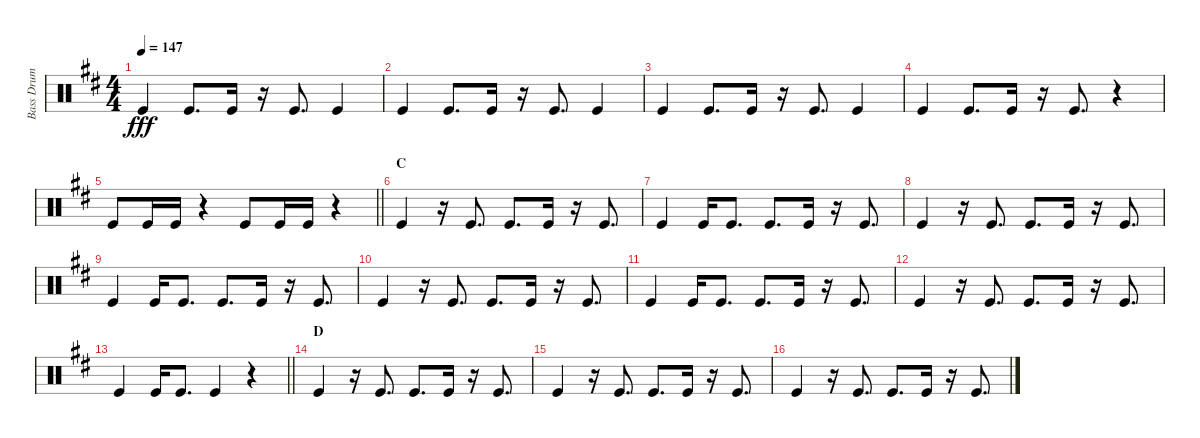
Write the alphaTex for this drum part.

\track ("Bass Drum" "Bass Drum") {instrument percussion}
\staff {score}
\articulation defaults
\ts (4 4)
\tempo 147
\clef neutral
\ks d "Kick (hit)".4{dy fff} "Kick (hit)".8{d} "Kick (hit)".16
r.16 "Kick (hit)".8{d} "Kick (hit)".4 |
"Kick (hit)".4 "Kick (hit)".8{d} "Kick (hit)".16 r.16 "Kick (hit)".8{d} "Kick (hit)".4 |
"Kick (hit)".4 "Kick (hit)".8{d} "Kick (hit)".16 r.16 "Kick (hit)".8{d} "Kick (hit)".4 |
"Kick (hit)".4 "Kick (hit)".8{d} "Kick (hit)".16 r.16 "Kick (hit)".8{d} r.4 |
\barLineRight lightlight "Kick (hit)".8 "Kick (hit)".16 "Kick (hit)".16
r.4 "Kick (hit)".8 "Kick (hit)".16 "Kick (hit)".16 r.4 |
\section ("" "C")
"Kick (hit)".4 r.16 "Kick (hit)".8{d} "Kick (hit)".8{d} "Kick (hit)".16 r.16 "Kick (hit)".8{d} |
"Kick (hit)".4 "Kick (hit)".16 "Kick (hit)".8{d} "Kick (hit)".8{d} "Kick (hit)".16 r.16 "Kick (hit)".8{d} |
"Kick (hit)".4 r.16 "Kick (hit)".8{d} "Kick (hit)".8{d} "Kick (hit)".16 r.16 "Kick (hit)".8{d} |
"Kick (hit)".4 "Kick (hit)".16 "Kick (hit)".8{d} "Kick (hit)".8{d} "Kick (hit)".16 r.16 "Kick (hit)".8{d} |
"Kick (hit)".4 r.16 "Kick (hit)".8{d} "Kick (hit)".8{d} "Kick (hit)".16 r.16 "Kick (hit)".8{d} |
"Kick (hit)".4 "Kick (hit)".16 "Kick (hit)".8{d} "Kick (hit)".8{d} "Kick (hit)".16 r.16 "Kick (hit)".8{d} |
"Kick (hit)".4 r.16 "Kick (hit)".8{d} "Kick (hit)".8{d} "Kick (hit)".16 r.16 "Kick (hit)".8{d} |
\barLineRight lightlight "Kick (hit)".4 "Kick (hit)".16 "Kick (hit)".8{d} "Kick (hit)".4
r.4 |
\section ("" "D")
"Kick (hit)".4 r.16 "Kick (hit)".8{d} "Kick (hit)".8{d} "Kick (hit)".16 r.16 "Kick (hit)".8{d} |
"Kick (hit)".4 r.16 "Kick (hit)".8{d} "Kick (hit)".8{d} "Kick (hit)".16 r.16 "Kick (hit)".8{d} |
"Kick (hit)".4 r.16 "Kick (hit)".8{d} "Kick (hit)".8{d} "Kick (hit)".16 r.16 "Kick (hit)".8{d}
